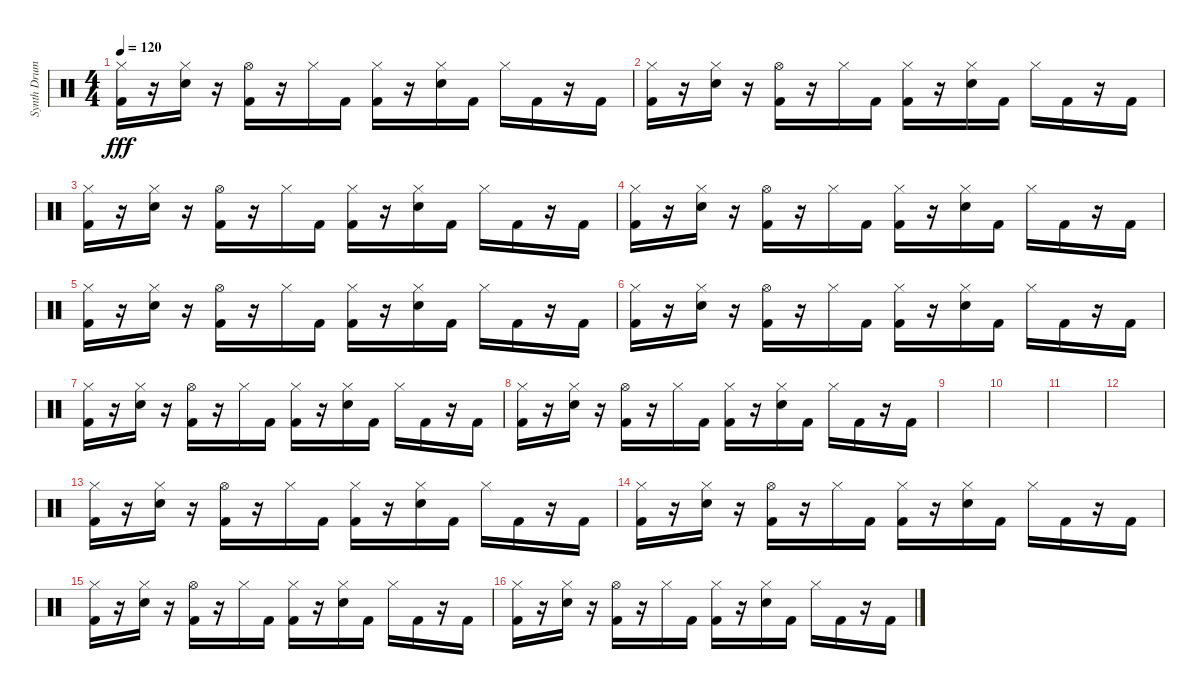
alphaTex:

\track ("Synth Drums" "Synth Drum") {instrument percussion}
\staff {score}
\articulation defaults
\ts (4 4)
\tempo 120
\clef neutral
\ks c
("Hi-Hat (closed)" "Kick (hit) 2").16{dy fff} r.16 ("Hi-Hat (closed)" "Snare (hit) 2").16 r.16 ("Hi-Hat (open)" "Kick (hit) 2").16 r.16 "Hi-Hat (closed)".16 "Kick (hit) 2".16 ("Hi-Hat (closed)" "Kick (hit) 2").16 r.16 ("Hi-Hat (closed)" "Snare (hit) 2").16 "Kick (hit) 2".16 "Hi-Hat (closed)".16 "Kick (hit) 2".16 r.16 "Kick (hit) 2".16 |
("Hi-Hat (closed)" "Kick (hit) 2").16 r.16 ("Hi-Hat (closed)" "Snare (hit) 2").16 r.16 ("Hi-Hat (open)" "Kick (hit) 2").16 r.16 "Hi-Hat (closed)".16 "Kick (hit) 2".16 ("Hi-Hat (closed)" "Kick (hit) 2").16 r.16 ("Hi-Hat (closed)" "Snare (hit) 2").16 "Kick (hit) 2".16 "Hi-Hat (closed)".16 "Kick (hit) 2".16 r.16 "Kick (hit) 2".16 |
("Hi-Hat (closed)" "Kick (hit) 2").16 r.16 ("Hi-Hat (closed)" "Snare (hit) 2").16 r.16 ("Hi-Hat (open)" "Kick (hit) 2").16 r.16 "Hi-Hat (closed)".16 "Kick (hit) 2".16 ("Hi-Hat (closed)" "Kick (hit) 2").16 r.16 ("Hi-Hat (closed)" "Snare (hit) 2").16 "Kick (hit) 2".16 "Hi-Hat (closed)".16 "Kick (hit) 2".16 r.16 "Kick (hit) 2".16 |
("Hi-Hat (closed)" "Kick (hit) 2").16 r.16 ("Hi-Hat (closed)" "Snare (hit) 2").16 r.16 ("Hi-Hat (open)" "Kick (hit) 2").16 r.16 "Hi-Hat (closed)".16 "Kick (hit) 2".16 ("Hi-Hat (closed)" "Kick (hit) 2").16 r.16 ("Hi-Hat (closed)" "Snare (hit) 2").16 "Kick (hit) 2".16 "Hi-Hat (closed)".16 "Kick (hit) 2".16 r.16 "Kick (hit) 2".16 |
("Hi-Hat (closed)" "Kick (hit) 2").16 r.16 ("Hi-Hat (closed)" "Snare (hit) 2").16 r.16 ("Hi-Hat (open)" "Kick (hit) 2").16 r.16 "Hi-Hat (closed)".16 "Kick (hit) 2".16 ("Hi-Hat (closed)" "Kick (hit) 2").16 r.16 ("Hi-Hat (closed)" "Snare (hit) 2").16 "Kick (hit) 2".16 "Hi-Hat (closed)".16 "Kick (hit) 2".16 r.16 "Kick (hit) 2".16 |
("Hi-Hat (closed)" "Kick (hit) 2").16 r.16 ("Hi-Hat (closed)" "Snare (hit) 2").16 r.16 ("Hi-Hat (open)" "Kick (hit) 2").16 r.16 "Hi-Hat (closed)".16 "Kick (hit) 2".16 ("Hi-Hat (closed)" "Kick (hit) 2").16 r.16 ("Hi-Hat (closed)" "Snare (hit) 2").16 "Kick (hit) 2".16 "Hi-Hat (closed)".16 "Kick (hit) 2".16 r.16 "Kick (hit) 2".16 |
("Hi-Hat (closed)" "Kick (hit) 2").16 r.16 ("Hi-Hat (closed)" "Snare (hit) 2").16 r.16 ("Hi-Hat (open)" "Kick (hit) 2").16 r.16 "Hi-Hat (closed)".16 "Kick (hit) 2".16 ("Hi-Hat (closed)" "Kick (hit) 2").16 r.16 ("Hi-Hat (closed)" "Snare (hit) 2").16 "Kick (hit) 2".16 "Hi-Hat (closed)".16 "Kick (hit) 2".16 r.16 "Kick (hit) 2".16 |
("Hi-Hat (closed)" "Kick (hit) 2").16 r.16 ("Hi-Hat (closed)" "Snare (hit) 2").16 r.16 ("Hi-Hat (open)" "Kick (hit) 2").16 r.16 "Hi-Hat (closed)".16 "Kick (hit) 2".16 ("Hi-Hat (closed)" "Kick (hit) 2").16 r.16 ("Hi-Hat (closed)" "Snare (hit) 2").16 "Kick (hit) 2".16 "Hi-Hat (closed)".16 "Kick (hit) 2".16 r.16 "Kick (hit) 2".16 |
|
|
|
|
("Hi-Hat (closed)" "Kick (hit) 2").16 r.16 ("Hi-Hat (closed)" "Snare (hit) 2").16 r.16 ("Hi-Hat (open)" "Kick (hit) 2").16 r.16 "Hi-Hat (closed)".16 "Kick (hit) 2".16 ("Hi-Hat (closed)" "Kick (hit) 2").16 r.16 ("Hi-Hat (closed)" "Snare (hit) 2").16 "Kick (hit) 2".16 "Hi-Hat (closed)".16 "Kick (hit) 2".16 r.16 "Kick (hit) 2".16 |
("Hi-Hat (closed)" "Kick (hit) 2").16 r.16 ("Hi-Hat (closed)" "Snare (hit) 2").16 r.16 ("Hi-Hat (open)" "Kick (hit) 2").16 r.16 "Hi-Hat (closed)".16 "Kick (hit) 2".16 ("Hi-Hat (closed)" "Kick (hit) 2").16 r.16 ("Hi-Hat (closed)" "Snare (hit) 2").16 "Kick (hit) 2".16 "Hi-Hat (closed)".16 "Kick (hit) 2".16 r.16 "Kick (hit) 2".16 |
("Hi-Hat (closed)" "Kick (hit) 2").16 r.16 ("Hi-Hat (closed)" "Snare (hit) 2").16 r.16 ("Hi-Hat (open)" "Kick (hit) 2").16 r.16 "Hi-Hat (closed)".16 "Kick (hit) 2".16 ("Hi-Hat (closed)" "Kick (hit) 2").16 r.16 ("Hi-Hat (closed)" "Snare (hit) 2").16 "Kick (hit) 2".16 "Hi-Hat (closed)".16 "Kick (hit) 2".16 r.16 "Kick (hit) 2".16 |
("Hi-Hat (closed)" "Kick (hit) 2").16 r.16 ("Hi-Hat (closed)" "Snare (hit) 2").16 r.16 ("Hi-Hat (open)" "Kick (hit) 2").16 r.16 "Hi-Hat (closed)".16 "Kick (hit) 2".16 ("Hi-Hat (closed)" "Kick (hit) 2").16 r.16 ("Hi-Hat (closed)" "Snare (hit) 2").16 "Kick (hit) 2".16 "Hi-Hat (closed)".16 "Kick (hit) 2".16 r.16 "Kick (hit) 2".16
